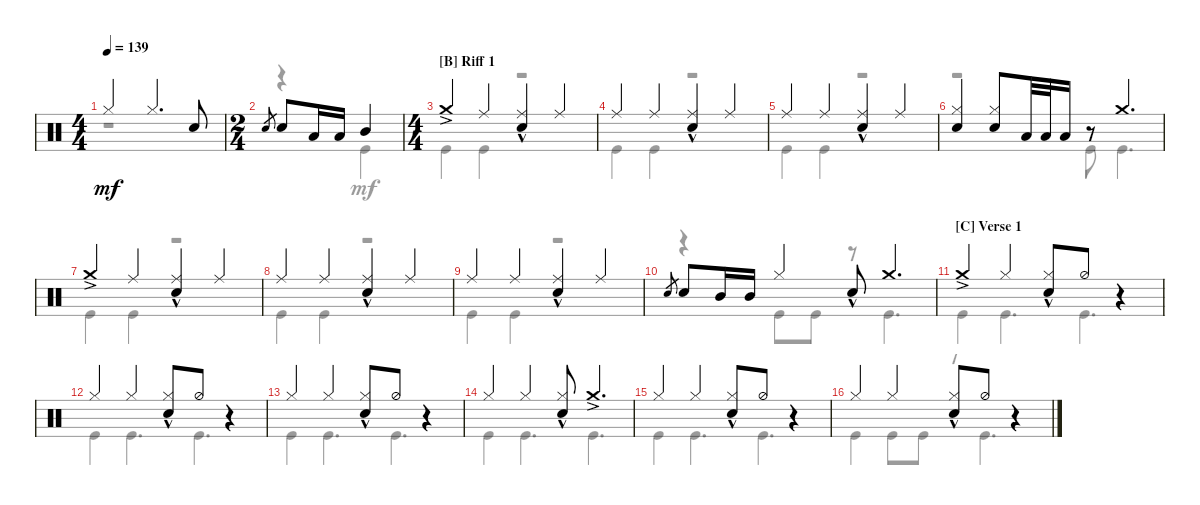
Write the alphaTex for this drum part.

\defaultSystemsLayout 4
\bracketExtendMode groupsimilarinstruments
\singleTrackTrackNamePolicy hidden
\multiTrackTrackNamePolicy hidden
\firstSystemTrackNameOrientation horizontal
\otherSystemsTrackNameOrientation horizontal
\track ("Nicko McBrain" "Drums") {instrument percussion}
\staff {score}
\articulation defaults
\voice
\ts (4 4)
\tempo 139
\clef neutral
\scale
1.02648
\ks c "Hi-Hat (closed)".2{dy mf} "Hi-Hat (closed)".4{d} "Snare (hit) 2".8
|
\ts (2 4)
\scale
0.973518 "Snare (hit) 2".8{gr} "Snare (hit) 2".8 "Low Tom (hit)".16 "Low Tom (hit)".16 "Mid Tom (hit)".4 |
\ts (4 4)
\section ("B" "Riff 1")
\scale
1.05675 "Crash medium (hit)"{ac}.4 "Ride (middle)".4 ("Snare (hit) 2"{hac} "Ride (middle)").4 "Ride (middle)".4 |
\scale
0.943253 "Ride (middle)".4 "Ride (middle)".4 ("Snare (hit) 2"{hac} "Ride (middle)").4 "Ride (middle)".4 |
\scale
1.02648 "Ride (middle)".4 "Ride (middle)".4 ("Snare (hit) 2"{hac} "Ride (middle)").4 "Ride (middle)".4 |
\scale
0.973518 ("Snare (hit) 2" "Hi-Hat (closed)").4 ("Snare (hit) 2" "Hi-Hat (closed)").8 "Low Tom (hit)".32 "Low Tom (hit)".32 "Low Tom (hit)".16 r.8 "Crash medium (hit)".4{d} |
\scale
1.02648 "Crash medium (hit)"{ac}.4 "Ride (middle)".4 ("Snare (hit) 2"{hac} "Ride (middle)").4 "Ride (middle)".4 |
\scale
0.973518 "Ride (middle)".4 "Ride (middle)".4 ("Snare (hit) 2"{hac} "Ride (middle)").4 "Ride (middle)".4 |
\scale
1.02648 "Ride (middle)".4 "Ride (middle)".4 ("Snare (hit) 2"{hac} "Ride (middle)").4 "Ride (middle)".4 |
\scale
0.973518 "Snare (hit) 2".8{gr} "Snare (hit) 2".8 "Mid Tom (hit)".16 "Mid Tom (hit)".16 "Hi-Hat (closed)".4 "Snare (hit) 2"{hac}.8 "Crash medium (hit)".4{d} |
\section ("C" "Verse 1")
\scale
1.02648 "Crash medium (hit)"{ac}.4 "Hi-Hat (closed)".4 ("Hi-Hat (closed)" "Snare (hit) 2"{hac}).8 "Hi-Hat (half)".8 r.4 |
\scale
0.973518 "Hi-Hat (closed)".4 "Hi-Hat (closed)".4 ("Hi-Hat (closed)" "Snare (hit) 2"{hac}).8 "Hi-Hat (half)".8 r.4 |
\scale
1.02648 "Hi-Hat (closed)".4 "Hi-Hat (closed)".4 ("Hi-Hat (closed)" "Snare (hit) 2"{hac}).8 "Hi-Hat (half)".8 r.4 |
\scale
0.973518 "Hi-Hat (closed)".4 "Hi-Hat (closed)".4 ("Hi-Hat (closed)" "Snare (hit) 2"{hac}).8 "Crash medium (hit)"{ac}.4{d} |
\scale
1.02648 "Hi-Hat (closed)".4 "Hi-Hat (closed)".4 ("Hi-Hat (closed)" "Snare (hit) 2"{hac}).8 "Hi-Hat (half)".8 r.4 |
\scale
0.973518 "Hi-Hat (closed)".4 "Hi-Hat (closed)".4 ("Hi-Hat (closed)" "Snare (hit) 2"{hac}).8 "Hi-Hat (half)".8 r.4
\voice
\clef neutral
\ottava regular
\simile none
\scale
1.02648
\ks c
r.1{dy mf} |
\scale
0.973518 r.4 "Kick (hit)".4 |
\scale
1.05675 "Kick (hit)".4 "Kick (hit)".4 r.2 |
\scale
0.943253 "Kick (hit)".4 "Kick (hit)".4 r.2 |
\scale
1.02648 "Kick (hit)".4 "Kick (hit)".4 r.2 |
\scale
0.973518 r.2 "Kick (hit)".8 "Kick (hit)".4{d} |
\scale
1.02648 "Kick (hit)".4 "Kick (hit)".4 r.2 |
\scale
0.973518 "Kick (hit)".4 "Kick (hit)".4 r.2 |
\scale
1.02648 "Kick (hit)".4 "Kick (hit)".4 r.2 |
\scale
0.973518 r.4 "Kick (hit)".8 "Kick (hit)".8 r.8 "Kick (hit)".4{d} |
\scale
1.02648 "Kick (hit)".4 "Kick (hit)".4{d} "Kick (hit)".4{d} |
\scale
0.973518 "Kick (hit)".4 "Kick (hit)".4{d} "Kick (hit)".4{d} |
\scale
1.02648 "Kick (hit)".4 "Kick (hit)".4{d} "Kick (hit)".4{d} |
\scale
0.973518 "Kick (hit)".4 "Kick (hit)".4{d} "Kick (hit)".4{d} |
\scale
1.02648 "Kick (hit)".4 "Kick (hit)".4{d} "Kick (hit)".4{d} |
\scale
0.973518 "Kick (hit)".4 "Kick (hit)".8 "Kick (hit)".8 r.8 "Kick (hit)".4{d}
